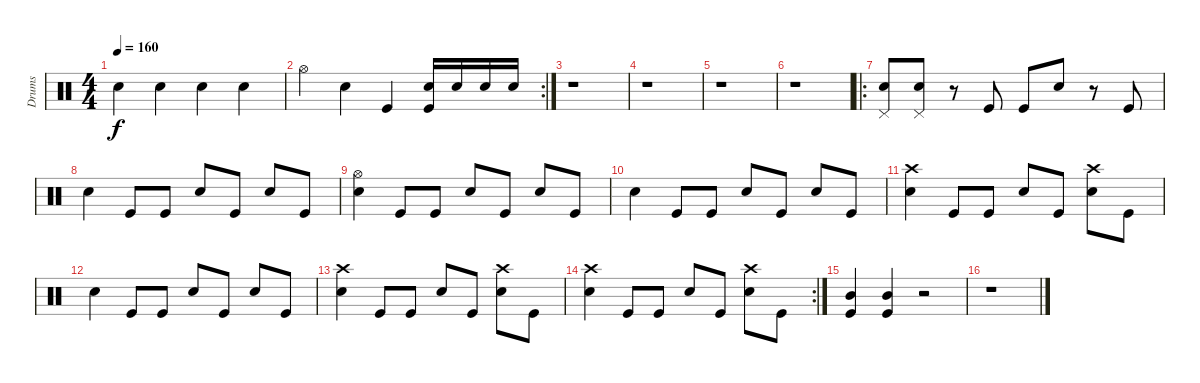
\track ("Drums" "Drums") {instrument percussion}
\staff {score}
\articulation defaults
\ts (4 4)
\tempo 160
\clef neutral
\ks c "Snare (hit) 2".4{dy f} "Snare (hit) 2".4 "Snare (hit) 2".4 "Snare (hit) 2".4
|
\rc 2 "Hi-Hat (open)".4 "Snare (hit) 2".4 "Kick (hit)".4
("Snare (hit) 2" "Kick (hit)").16 "Snare (hit) 2".16 "Snare (hit) 2".16 "Snare (hit) 2".16 |
r.1 |
r.1 |
r.1 |
r.1 |
\ro
("Pedal Hi-Hat (hit)" "Snare (hit) 2").8 ("Pedal Hi-Hat (hit)" "Snare (hit) 2").8 r.8 "Kick (hit)".8 "Kick (hit)".8 "Snare (hit) 2".8 r.8 "Kick (hit)".8 |
"Snare (hit) 2".4 "Kick (hit)".8 "Kick (hit)".8 "Snare (hit) 2".8 "Kick (hit)".8 "Snare (hit) 2".8 "Kick (hit)".8 |
("Hi-Hat (open)" "Snare (hit) 2").4 "Kick (hit)".8 "Kick (hit)".8 "Snare (hit) 2".8 "Kick (hit)".8 "Snare (hit) 2".8 "Kick (hit)".8 |
"Snare (hit) 2".4 "Kick (hit)".8 "Kick (hit)".8 "Snare (hit) 2".8 "Kick (hit)".8 "Snare (hit) 2".8 "Kick (hit)".8 |
("Crash high (hit)" "Snare (hit) 2").4 "Kick (hit)".8 "Kick (hit)".8 "Snare (hit) 2".8 "Kick (hit)".8 ("Crash high (hit)" "Snare (hit) 2").8 "Kick (hit)".8 |
"Snare (hit) 2".4 "Kick (hit)".8 "Kick (hit)".8 "Snare (hit) 2".8 "Kick (hit)".8 "Snare (hit) 2".8 "Kick (hit)".8 |
("Crash high (hit)" "Snare (hit) 2").4 "Kick (hit)".8 "Kick (hit)".8 "Snare (hit) 2".8 "Kick (hit)".8 ("Crash high (hit)" "Snare (hit) 2").8 "Kick (hit)".8 |
\rc 2
("Crash high (hit)" "Snare (hit) 2").4 "Kick (hit)".8 "Kick (hit)".8 "Snare (hit) 2".8 "Kick (hit)".8 ("Crash high (hit)" "Snare (hit) 2").8 "Kick (hit)".8 |
("Mid Tom (hit)" "Kick (hit)").4 ("Mid Tom (hit)" "Kick (hit)").4 r.2 |
r.1
